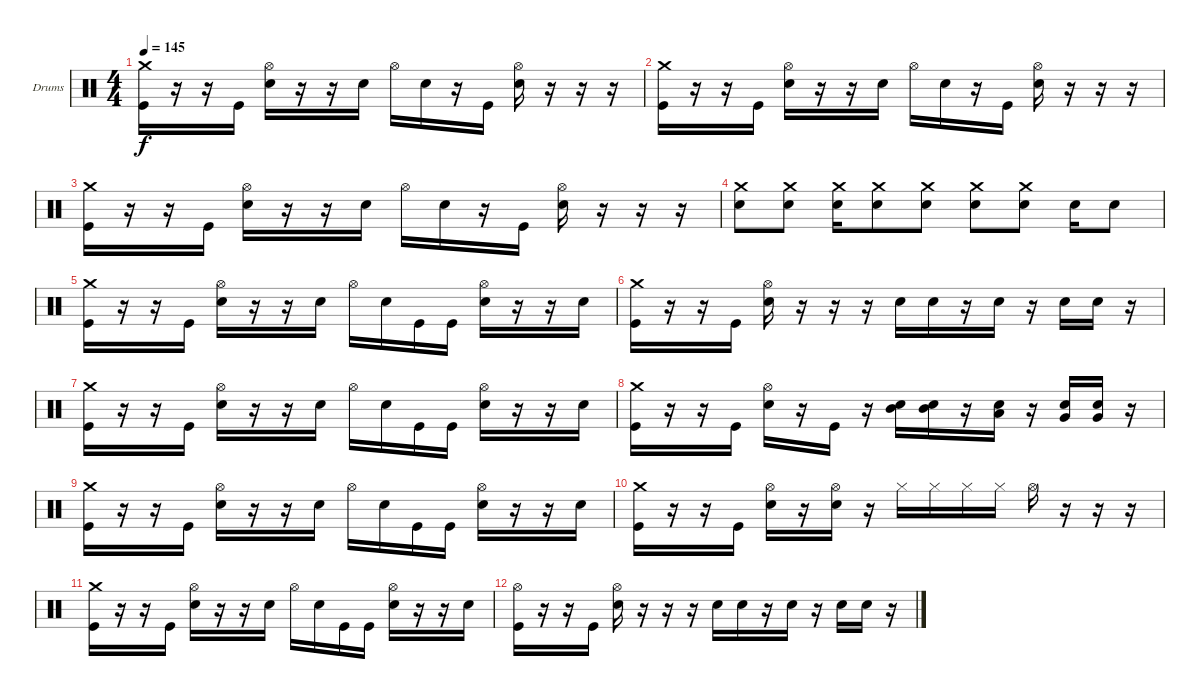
\defaultSystemsLayout 4
\bracketExtendMode groupsimilarinstruments
\firstSystemTrackNameOrientation horizontal
\otherSystemsTrackNameOrientation horizontal
\track ("Drumkit" "Drums") {instrument percussion}
\staff {score}
\articulation defaults
\ts (4 4)
\tempo 145
\clef neutral
\ks c
("Crash medium (hit)" "Kick (hit)").16{dy f} r.16 r.16 "Kick (hit)".16 ("Hi-Hat (open)" "Snare (hit) 2").16 r.16 r.16 "Snare (hit) 2".16 "Hi-Hat (open)".16 "Snare (hit) 2".16 r.16 "Kick (hit)".16 ("Hi-Hat (open)" "Snare (hit) 2").16 r.16 r.16 r.16 |
("Crash medium (hit)" "Kick (hit)").16 r.16 r.16 "Kick (hit)".16 ("Hi-Hat (open)" "Snare (hit) 2").16 r.16 r.16 "Snare (hit) 2".16 "Hi-Hat (open)".16 "Snare (hit) 2".16 r.16 "Kick (hit)".16 ("Hi-Hat (open)" "Snare (hit) 2").16 r.16 r.16 r.16 |
("Crash medium (hit)" "Kick (hit)").16 r.16 r.16 "Kick (hit)".16 ("Hi-Hat (open)" "Snare (hit) 2").16 r.16 r.16 "Snare (hit) 2".16 "Hi-Hat (open)".16 "Snare (hit) 2".16 r.16 "Kick (hit)".16 ("Hi-Hat (open)" "Snare (hit) 2").16 r.16 r.16 r.16 |
("Crash medium (hit)" "Snare (hit) 2").8 ("Crash medium (hit)" "Snare (hit) 2").8 ("Crash medium (hit)" "Snare (hit) 2").16 ("Crash medium (hit)" "Snare (hit) 2").8 ("Crash medium (hit)" "Snare (hit) 2").8 ("Crash medium (hit)" "Snare (hit) 2").8 ("Crash medium (hit)" "Snare (hit) 2").8 "Snare (hit) 2".16 "Snare (hit) 2".8 |
("Crash medium (hit)" "Kick (hit)").16 r.16 r.16 "Kick (hit)".16 ("Hi-Hat (open)" "Snare (hit) 2").16 r.16 r.16 "Snare (hit) 2".16 "Hi-Hat (open)".16 "Snare (hit) 2".16 "Kick (hit)".16 "Kick (hit)".16 ("Hi-Hat (open)" "Snare (hit) 2").16 r.16 r.16 "Snare (hit) 2".16 |
("Crash medium (hit)" "Kick (hit)").16 r.16 r.16 "Kick (hit)".16 ("Hi-Hat (open)" "Snare (hit) 2").16 r.16 r.16 r.16 "Snare (hit) 2".16 "Snare (hit) 2".16 r.16 "Snare (hit) 2".16 r.16 "Snare (hit) 2".16 "Snare (hit) 2".16 r.16 |
("Crash medium (hit)" "Kick (hit)").16 r.16 r.16 "Kick (hit)".16 ("Hi-Hat (open)" "Snare (hit) 2").16 r.16 r.16 "Snare (hit) 2".16 "Hi-Hat (open)".16 "Snare (hit) 2".16 "Kick (hit)".16 "Kick (hit)".16 ("Hi-Hat (open)" "Snare (hit) 2").16 r.16 r.16 "Snare (hit) 2".16 |
("Crash medium (hit)" "Kick (hit)").16 r.16 r.16 "Kick (hit)".16 ("Hi-Hat (open)" "Snare (hit) 2").16 r.16 "Kick (hit)".16 r.16 ("Mid Tom (hit)" "Snare (hit) 2").16 ("Mid Tom (hit)" "Snare (hit) 2").16 r.16 ("Low Tom (hit)" "Snare (hit) 2").16 r.16 ("Very Low Tom (hit)" "Snare (hit) 2").16 ("Very Low Tom (hit)" "Snare (hit) 2").16 r.16 |
("Crash medium (hit)" "Kick (hit)").16 r.16 r.16 "Kick (hit)".16 ("Hi-Hat (open)" "Snare (hit) 2").16 r.16 r.16 "Snare (hit) 2".16 "Hi-Hat (open)".16 "Snare (hit) 2".16 "Kick (hit)".16 "Kick (hit)".16 ("Hi-Hat (open)" "Snare (hit) 2").16 r.16 r.16 "Snare (hit) 2".16 |
("Crash medium (hit)" "Kick (hit)").16 r.16 r.16 "Kick (hit)".16 ("Hi-Hat (open)" "Snare (hit) 2").16 r.16 ("Hi-Hat (open)" "Snare (hit) 2").16 r.16 "Hi-Hat (closed)".16 "Hi-Hat (closed)".16 "Hi-Hat (closed)".16 "Hi-Hat (closed)".16 "Hi-Hat (open)".16 r.16 r.16 r.16 |
("Crash medium (hit)" "Kick (hit)").16 r.16 r.16 "Kick (hit)".16 ("Hi-Hat (open)" "Snare (hit) 2").16 r.16 r.16 "Snare (hit) 2".16 "Hi-Hat (open)".16 "Snare (hit) 2".16 "Kick (hit)".16 "Kick (hit)".16 ("Hi-Hat (open)" "Snare (hit) 2").16 r.16 r.16 "Snare (hit) 2".16 |
("Hi-Hat (open)" "Kick (hit)").16 r.16 r.16 "Kick (hit)".16 ("Hi-Hat (open)" "Snare (hit) 2").16 r.16 r.16 r.16 "Snare (hit) 2".16 "Snare (hit) 2".16 r.16 "Snare (hit) 2".16 r.16 "Snare (hit) 2".16 "Snare (hit) 2".16 r.16
